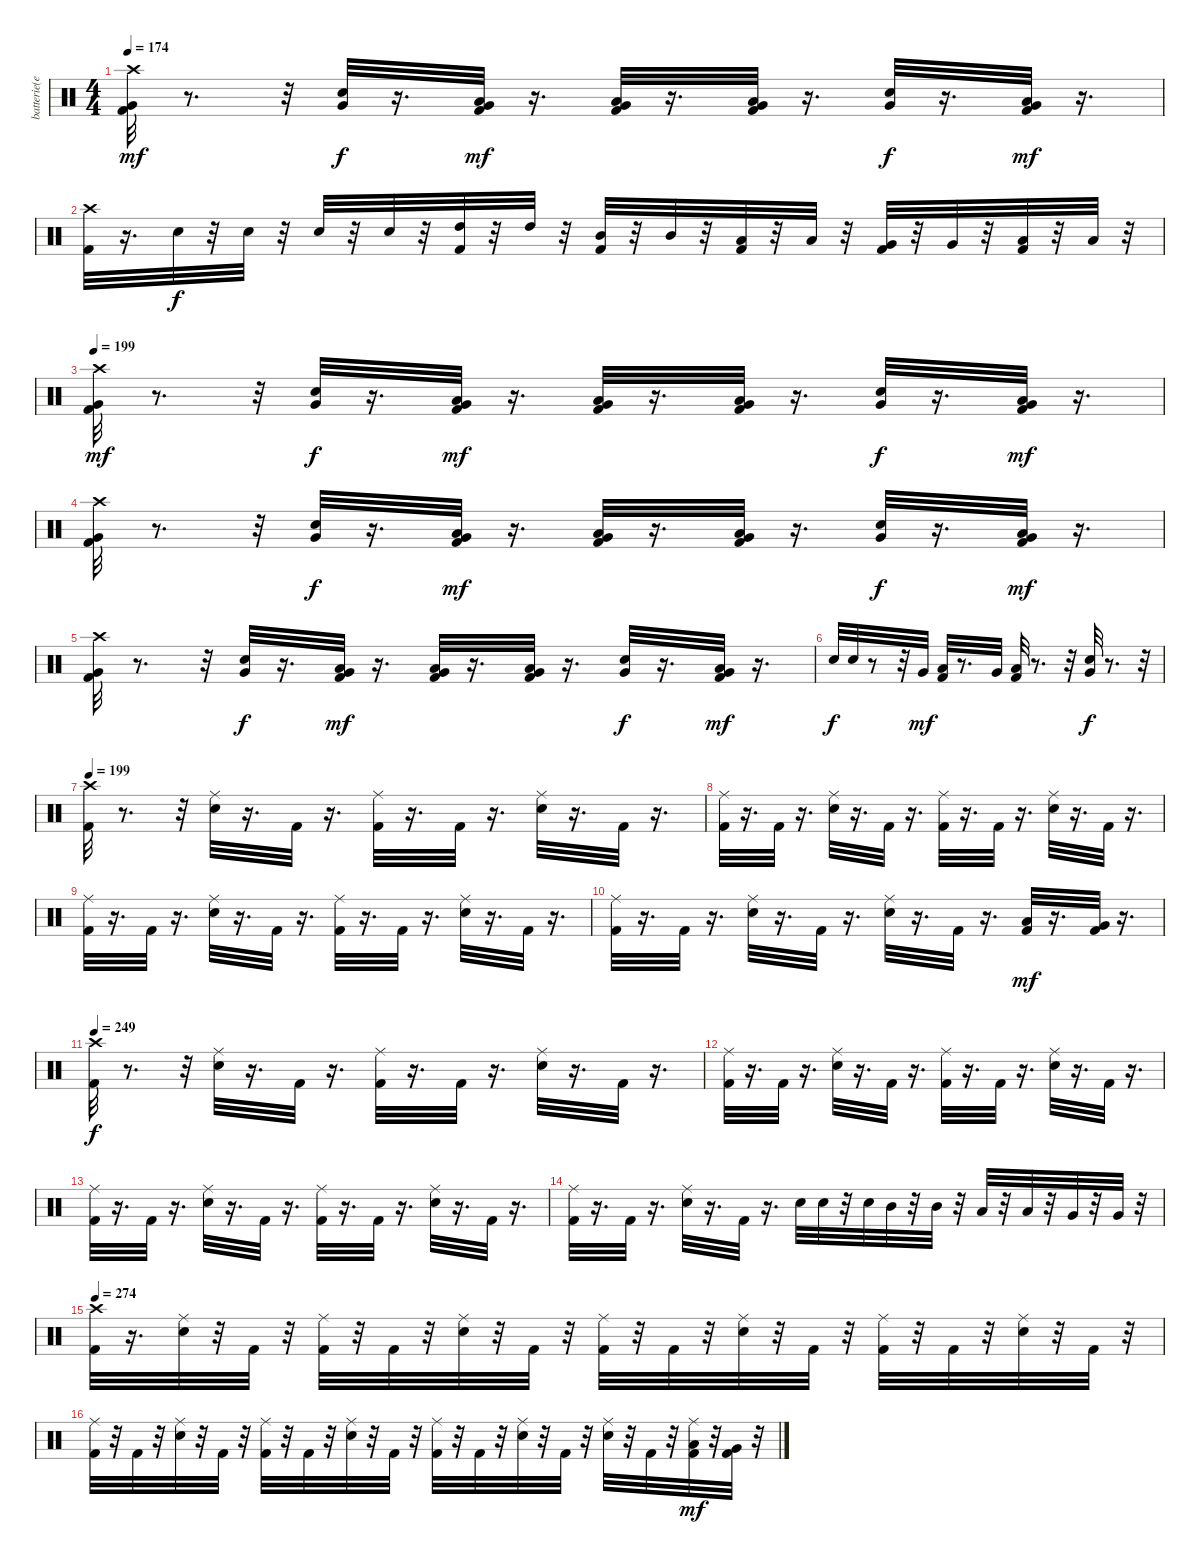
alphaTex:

\track ("batterie(eric)" "batterie(e") {instrument percussion}
\staff {score}
\articulation defaults
\ts (4 4)
\tempo 174
\clef neutral
\ks c
("Kick (hit) 2" "Very Low Tom (hit)" "Crash high (hit)").32{dy mf} r.8{d} r.32 ("Snare (hit) 2" "Very Low Tom (hit)").32{dy f} r.16{d} ("Kick (hit) 2" "Low Floor Tom (hit)" "Very Low Tom (hit)").32{dy mf} r.16{d} ("Kick (hit) 2" "Low Floor Tom (hit)" "Very Low Tom (hit)").32 r.16{d} ("Kick (hit) 2" "Low Floor Tom (hit)" "Very Low Tom (hit)").32 r.16{d} ("Snare (hit) 2" "Very Low Tom (hit)").32{dy f} r.16{d} ("Kick (hit) 2" "Low Floor Tom (hit)" "Very Low Tom (hit)").32{dy mf} r.16{d} |
("Kick (hit) 2" "Crash high (hit)").32 r.16{d} "Snare (hit) 2".32{dy f} r.32 "Snare (hit) 2".32 r.32 "Snare (hit) 2".32 r.32 "Snare (hit) 2".32 r.32 ("Kick (hit) 2" "High Tom (hit)").32 r.32 "High Tom (hit)".32 r.32 ("Kick (hit) 2" "Mid Tom (hit)").32 r.32 "Mid Tom (hit)".32 r.32 ("Kick (hit) 2" "Low Tom (hit)").32 r.32 "Low Tom (hit)".32 r.32 ("Kick (hit) 2" "Very Low Tom (hit)").32 r.32 "Very Low Tom (hit)".32 r.32 ("Kick (hit) 2" "Low Floor Tom (hit)").32 r.32 "Low Floor Tom (hit)".32 r.32 |
\tempo 199
("Kick (hit) 2" "Very Low Tom (hit)" "Crash high (hit)").32{dy mf} r.8{d} r.32 ("Snare (hit) 2" "Very Low Tom (hit)").32{dy f} r.16{d} ("Kick (hit) 2" "Low Floor Tom (hit)" "Very Low Tom (hit)").32{dy mf} r.16{d} ("Kick (hit) 2" "Low Floor Tom (hit)" "Very Low Tom (hit)").32 r.16{d} ("Kick (hit) 2" "Low Floor Tom (hit)" "Very Low Tom (hit)").32 r.16{d} ("Snare (hit) 2" "Very Low Tom (hit)").32{dy f} r.16{d} ("Kick (hit) 2" "Low Floor Tom (hit)" "Very Low Tom (hit)").32{dy mf} r.16{d} |
("Kick (hit) 2" "Very Low Tom (hit)" "Crash high (hit)").32 r.8{d} r.32 ("Snare (hit) 2" "Very Low Tom (hit)").32{dy f} r.16{d} ("Kick (hit) 2" "Low Floor Tom (hit)" "Very Low Tom (hit)").32{dy mf} r.16{d} ("Kick (hit) 2" "Low Floor Tom (hit)" "Very Low Tom (hit)").32 r.16{d} ("Kick (hit) 2" "Low Floor Tom (hit)" "Very Low Tom (hit)").32 r.16{d} ("Snare (hit) 2" "Very Low Tom (hit)").32{dy f} r.16{d} ("Kick (hit) 2" "Low Floor Tom (hit)" "Very Low Tom (hit)").32{dy mf} r.16{d} |
("Kick (hit) 2" "Very Low Tom (hit)" "Crash high (hit)").32 r.8{d} r.32 ("Snare (hit) 2" "Very Low Tom (hit)").32{dy f} r.16{d} ("Kick (hit) 2" "Low Floor Tom (hit)" "Very Low Tom (hit)").32{dy mf} r.16{d} ("Kick (hit) 2" "Low Floor Tom (hit)" "Very Low Tom (hit)").32 r.16{d} ("Kick (hit) 2" "Low Floor Tom (hit)" "Very Low Tom (hit)").32 r.16{d} ("Snare (hit) 2" "Very Low Tom (hit)").32{dy f} r.16{d} ("Kick (hit) 2" "Low Floor Tom (hit)" "Very Low Tom (hit)").32{dy mf} r.16{d} |
"Snare (hit) 2".32{dy f} "Snare (hit) 2".32 r.8 r.32 "Very Low Tom (hit)".32{dy mf} ("Kick (hit) 2" "Low Floor Tom (hit)").32 r.8{d} "Very Low Tom (hit)".32 ("Kick (hit) 2" "Low Floor Tom (hit)").32 r.8{d} r.32 ("Snare (hit) 2" "Very Low Tom (hit)").32{dy f} r.8{d} r.32 |
\tempo 199
("Kick (hit) 2" "Crash high (hit)").32 r.8{d} r.32 ("Snare (hit) 2" "Ride (middle)").32 r.16{d} "Kick (hit) 2".32 r.16{d} ("Kick (hit) 2" "Ride (middle)").32 r.16{d} "Kick (hit) 2".32 r.16{d} ("Snare (hit) 2" "Ride (middle)").32 r.16{d} "Kick (hit) 2".32 r.16{d} |
("Kick (hit) 2" "Ride (middle)").32 r.16{d} "Kick (hit) 2".32 r.16{d} ("Snare (hit) 2" "Ride (middle)").32 r.16{d} "Kick (hit) 2".32 r.16{d} ("Kick (hit) 2" "Ride (middle)").32 r.16{d} "Kick (hit) 2".32 r.16{d} ("Snare (hit) 2" "Ride (middle)").32 r.16{d} "Kick (hit) 2".32 r.16{d} |
("Kick (hit) 2" "Ride (middle)").32 r.16{d} "Kick (hit) 2".32 r.16{d} ("Snare (hit) 2" "Ride (middle)").32 r.16{d} "Kick (hit) 2".32 r.16{d} ("Kick (hit) 2" "Ride (middle)").32 r.16{d} "Kick (hit) 2".32 r.16{d} ("Snare (hit) 2" "Ride (middle)").32 r.16{d} "Kick (hit) 2".32 r.16{d} |
("Kick (hit) 2" "Ride (middle)").32 r.16{d} "Kick (hit) 2".32 r.16{d} ("Snare (hit) 2" "Ride (middle)").32 r.16{d} "Kick (hit) 2".32 r.16{d} ("Snare (hit) 2" "Ride (middle)").32 r.16{d} "Kick (hit) 2".32 r.16{d} ("Kick (hit) 2" "Low Tom (hit)").32{dy mf} r.16{d} ("Kick (hit) 2" "Very Low Tom (hit)").32 r.16{d} |
\tempo 249
("Kick (hit) 2" "Crash high (hit)").32{dy f} r.8{d} r.32 ("Snare (hit) 2" "Ride (middle)").32 r.16{d} "Kick (hit) 2".32 r.16{d} ("Kick (hit) 2" "Ride (middle)").32 r.16{d} "Kick (hit) 2".32 r.16{d} ("Snare (hit) 2" "Ride (middle)").32 r.16{d} "Kick (hit) 2".32 r.16{d} |
("Kick (hit) 2" "Ride (middle)").32 r.16{d} "Kick (hit) 2".32 r.16{d} ("Snare (hit) 2" "Ride (middle)").32 r.16{d} "Kick (hit) 2".32 r.16{d} ("Kick (hit) 2" "Ride (middle)").32 r.16{d} "Kick (hit) 2".32 r.16{d} ("Snare (hit) 2" "Ride (middle)").32 r.16{d} "Kick (hit) 2".32 r.16{d} |
("Kick (hit) 2" "Ride (middle)").32 r.16{d} "Kick (hit) 2".32 r.16{d} ("Snare (hit) 2" "Ride (middle)").32 r.16{d} "Kick (hit) 2".32 r.16{d} ("Kick (hit) 2" "Ride (middle)").32 r.16{d} "Kick (hit) 2".32 r.16{d} ("Snare (hit) 2" "Ride (middle)").32 r.16{d} "Kick (hit) 2".32 r.16{d} |
("Kick (hit) 2" "Ride (middle)").32 r.16{d} "Kick (hit) 2".32 r.16{d} ("Snare (hit) 2" "Ride (middle)").32 r.16{d} "Kick (hit) 2".32 r.16{d} "Snare (hit) 2".32 "Snare (hit) 2".32 r.32 "Snare (hit) 2".32 "Mid Tom (hit)".32 r.32 "Mid Tom (hit)".32 r.32 "Low Tom (hit)".32 r.32 "Low Tom (hit)".32 r.32 "Very Low Tom (hit)".32 r.32 "Very Low Tom (hit)".32 r.32 |
\tempo 274
("Kick (hit) 2" "Crash high (hit)").32 r.16{d} ("Snare (hit) 2" "Ride (middle)").32 r.32 "Kick (hit) 2".32 r.32 ("Kick (hit) 2" "Ride (middle)").32 r.32 "Kick (hit) 2".32 r.32 ("Snare (hit) 2" "Ride (middle)").32 r.32 "Kick (hit) 2".32 r.32 ("Kick (hit) 2" "Ride (middle)").32 r.32 "Kick (hit) 2".32 r.32 ("Snare (hit) 2" "Ride (middle)").32 r.32 "Kick (hit) 2".32 r.32 ("Kick (hit) 2" "Ride (middle)").32 r.32 "Kick (hit) 2".32 r.32 ("Snare (hit) 2" "Ride (middle)").32 r.32 "Kick (hit) 2".32 r.32 |
("Kick (hit) 2" "Ride (middle)").32 r.32 "Kick (hit) 2".32 r.32 ("Snare (hit) 2" "Ride (middle)").32 r.32 "Kick (hit) 2".32 r.32 ("Kick (hit) 2" "Ride (middle)").32 r.32 "Kick (hit) 2".32 r.32 ("Snare (hit) 2" "Ride (middle)").32 r.32 "Kick (hit) 2".32 r.32 ("Kick (hit) 2" "Ride (middle)").32 r.32 "Kick (hit) 2".32 r.32 ("Snare (hit) 2" "Ride (middle)").32 r.32 "Kick (hit) 2".32 r.32 ("Snare (hit) 2" "Ride (middle)").32 r.32 "Kick (hit) 2".32 r.32 ("Kick (hit) 2" "Low Tom (hit)" "Ride (middle)").32{dy mf} r.32 ("Kick (hit) 2" "Very Low Tom (hit)").32 r.32
